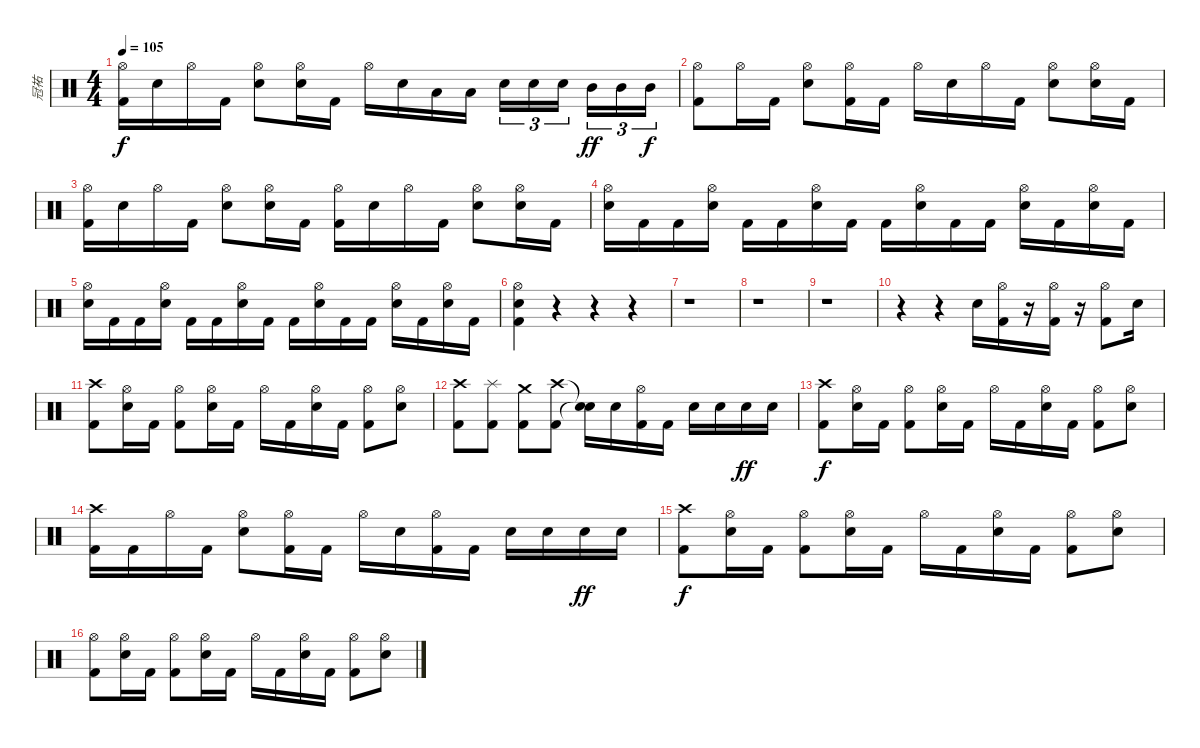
\track ("冠祐" "冠祐") {instrument percussion}
\staff {score}
\articulation defaults
\ts (4 4)
\tempo 105
\clef neutral
\ks c
("Hi-Hat (open)" "Kick (hit) 2").16{dy f} "Electric Snare (hit)".16 "Hi-Hat (open)".16 "Kick (hit) 2".16 ("Hi-Hat (open)" "Electric Snare (hit)").8 ("Hi-Hat (open)" "Electric Snare (hit)").16 "Kick (hit) 2".16 "Hi-Hat (open)".16 "Electric Snare (hit)".16 "Low Tom (hit)".16 "Low Tom (hit)".16 "Electric Snare (hit)".16{tu (3 2)} "Electric Snare (hit)".16{tu (3 2)} "Electric Snare (hit)".16{tu (3 2)} "Mid Tom (hit)".16{tu (3 2) dy ff} "Mid Tom (hit)".16{tu (3 2)} "Mid Tom (hit)".16{tu (3 2) dy f} |
("Hi-Hat (open)" "Kick (hit) 2").8 "Hi-Hat (open)".16 "Kick (hit) 2".16 ("Hi-Hat (open)" "Electric Snare (hit)").8 ("Hi-Hat (open)" "Kick (hit) 2").16 "Kick (hit) 2".16 "Hi-Hat (open)".16 "Electric Snare (hit)".16 "Hi-Hat (open)".16 "Kick (hit) 2".16 ("Hi-Hat (open)" "Electric Snare (hit)").8 ("Hi-Hat (open)" "Electric Snare (hit)").16 "Kick (hit) 2".16 |
("Hi-Hat (open)" "Kick (hit) 2").16 "Electric Snare (hit)".16 "Hi-Hat (open)".16 "Kick (hit) 2".16 ("Hi-Hat (open)" "Electric Snare (hit)").8 ("Hi-Hat (open)" "Electric Snare (hit)").16 "Kick (hit) 2".16 ("Hi-Hat (open)" "Kick (hit) 2").16 "Electric Snare (hit)".16 "Hi-Hat (open)".16 "Kick (hit) 2".16 ("Hi-Hat (open)" "Electric Snare (hit)").8 ("Hi-Hat (open)" "Electric Snare (hit)").16 "Kick (hit) 2".16 |
("Hi-Hat (open)" "Electric Snare (hit)").16 "Kick (hit) 2".16 "Kick (hit) 2".16 ("Hi-Hat (open)" "Electric Snare (hit)").16 "Kick (hit) 2".16 "Kick (hit) 2".16 ("Hi-Hat (open)" "Electric Snare (hit)").16 "Kick (hit) 2".16 "Kick (hit) 2".16 ("Hi-Hat (open)" "Electric Snare (hit)").16 "Kick (hit) 2".16 "Kick (hit) 2".16 ("Hi-Hat (open)" "Electric Snare (hit)").16 "Kick (hit) 2".16 ("Hi-Hat (open)" "Electric Snare (hit)").16 "Kick (hit) 2".16 |
("Hi-Hat (open)" "Electric Snare (hit)").16 "Kick (hit) 2".16 "Kick (hit) 2".16 ("Hi-Hat (open)" "Electric Snare (hit)").16 "Kick (hit) 2".16 "Kick (hit) 2".16 ("Hi-Hat (open)" "Electric Snare (hit)").16 "Kick (hit) 2".16 "Kick (hit) 2".16 ("Hi-Hat (open)" "Electric Snare (hit)").16 "Kick (hit) 2".16 "Kick (hit) 2".16 ("Hi-Hat (open)" "Electric Snare (hit)").16 "Kick (hit) 2".16 ("Hi-Hat (open)" "Electric Snare (hit)").16 "Kick (hit) 2".16 |
("Hi-Hat (open)" "Electric Snare (hit)" "Kick (hit) 2").4 r.4 r.4 r.4 |
r.1 |
r.1 |
r.1 |
r.4 r.4 "Electric Snare (hit)".16 ("Hi-Hat (open)" "Kick (hit) 2").16 r.16 ("Hi-Hat (open)" "Kick (hit) 2").16 r.16 ("Hi-Hat (open)" "Kick (hit) 2").8 "Electric Snare (hit)".16 |
("Crash high (hit)" "Kick (hit) 2").8 ("Hi-Hat (open)" "Electric Snare (hit)").16 "Kick (hit) 2".16 ("Hi-Hat (open)" "Kick (hit) 2").8 ("Hi-Hat (open)" "Electric Snare (hit)").16 "Kick (hit) 2".16 "Hi-Hat (open)".16 "Kick (hit) 2".16 ("Hi-Hat (open)" "Electric Snare (hit)").16 "Kick (hit) 2".16 ("Hi-Hat (open)" "Kick (hit) 2").8 ("Hi-Hat (open)" "Electric Snare (hit)").8 |
("Crash high (hit)" "Kick (hit) 2").8 ("Splash (hit)" "Kick (hit) 2").8 ("Crash medium (hit)" "Kick (hit) 2").8 ("Crash high (hit)" "Kick (hit) 2").8 ("Snare (hit)"{t} "Snare (hit)"{t}).16 "Electric Snare (hit)".16 ("Hi-Hat (open)" "Kick (hit) 2").16 "Kick (hit) 2".16 "Electric Snare (hit)".16 "Electric Snare (hit)".16 "Electric Snare (hit)".16{dy ff} "Electric Snare (hit)".16 |
("Crash high (hit)" "Kick (hit) 2").8{dy f} ("Hi-Hat (open)" "Electric Snare (hit)").16 "Kick (hit) 2".16 ("Hi-Hat (open)" "Kick (hit) 2").8 ("Hi-Hat (open)" "Electric Snare (hit)").16 "Kick (hit) 2".16 "Hi-Hat (open)".16 "Kick (hit) 2".16 ("Hi-Hat (open)" "Electric Snare (hit)").16 "Kick (hit) 2".16 ("Hi-Hat (open)" "Kick (hit) 2").8 ("Hi-Hat (open)" "Electric Snare (hit)").8 |
("Crash high (hit)" "Kick (hit) 2").16 "Kick (hit) 2".16 "Hi-Hat (open)".16 "Kick (hit) 2".16 ("Hi-Hat (open)" "Electric Snare (hit)").8 ("Hi-Hat (open)" "Kick (hit) 2").16 "Kick (hit) 2".16 "Hi-Hat (open)".16 "Electric Snare (hit)".16 ("Hi-Hat (open)" "Kick (hit) 2").16 "Kick (hit) 2".16 "Electric Snare (hit)".16 "Electric Snare (hit)".16 "Electric Snare (hit)".16{dy ff} "Electric Snare (hit)".16 |
("Crash high (hit)" "Kick (hit) 2").8{dy f} ("Hi-Hat (open)" "Electric Snare (hit)").16 "Kick (hit) 2".16 ("Hi-Hat (open)" "Kick (hit) 2").8 ("Hi-Hat (open)" "Electric Snare (hit)").16 "Kick (hit) 2".16 "Hi-Hat (open)".16 "Kick (hit) 2".16 ("Hi-Hat (open)" "Electric Snare (hit)").16 "Kick (hit) 2".16 ("Hi-Hat (open)" "Kick (hit) 2").8 ("Hi-Hat (open)" "Electric Snare (hit)").8 |
("Hi-Hat (open)" "Kick (hit) 2").8 ("Hi-Hat (open)" "Electric Snare (hit)").16 "Kick (hit) 2".16 ("Hi-Hat (open)" "Kick (hit) 2").8 ("Hi-Hat (open)" "Electric Snare (hit)").16 "Kick (hit) 2".16 "Hi-Hat (open)".16 "Kick (hit) 2".16 ("Hi-Hat (open)" "Electric Snare (hit)").16 "Kick (hit) 2".16 ("Hi-Hat (open)" "Kick (hit) 2").8 ("Hi-Hat (open)" "Electric Snare (hit)").8
